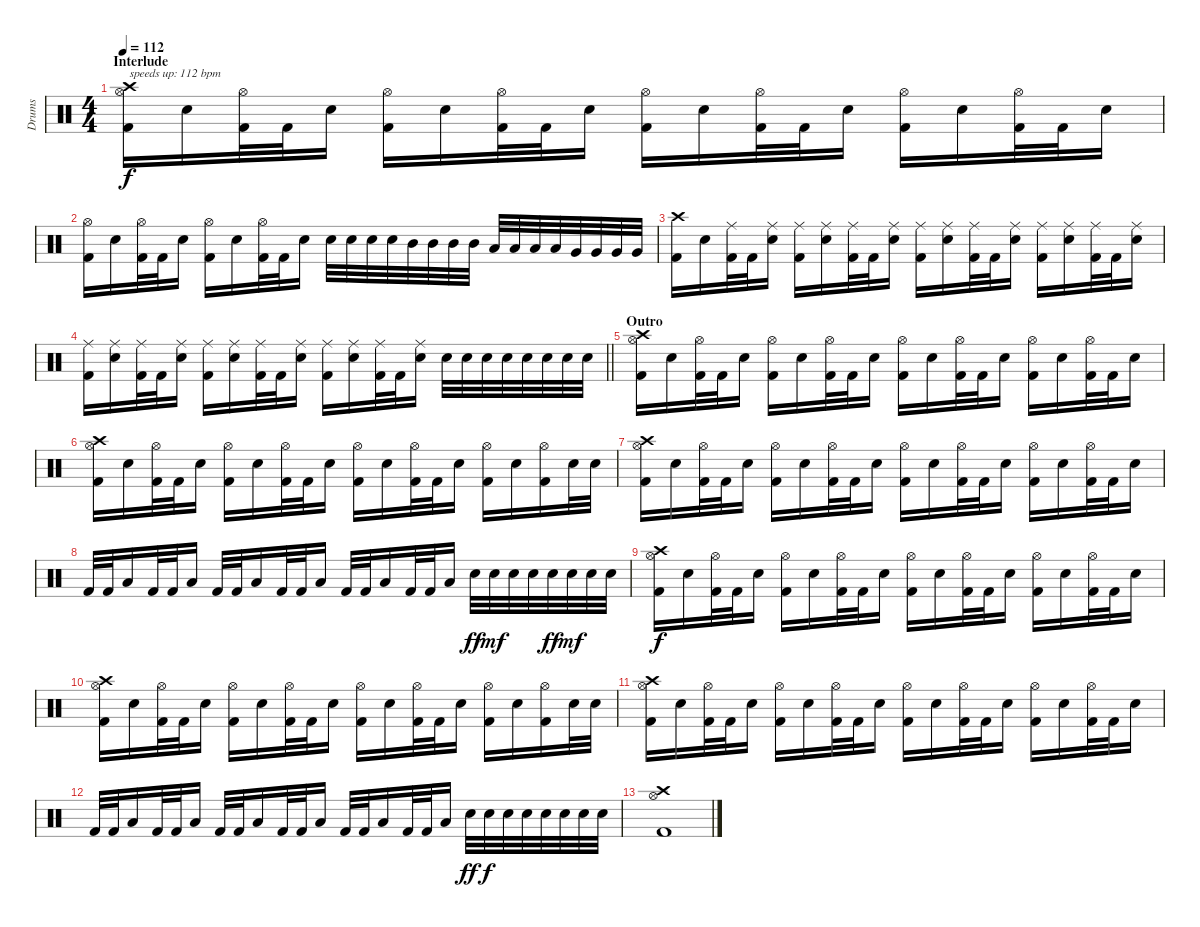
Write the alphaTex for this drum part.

\track ("Drums" "Drums") {instrument percussion}
\staff {score}
\articulation defaults
\ts (4 4)
\section ("" "Interlude")
\tempo 112
\clef neutral
\ks c
("Crash high (hit)" "Hi-Hat (open)" "Kick (hit) 2").16{txt "speeds up: 112 bpm" dy f} "Electric Snare (hit)".16 ("Hi-Hat (open)" "Kick (hit) 2").32 "Kick (hit) 2".32 "Electric Snare (hit)".16 ("Hi-Hat (open)" "Kick (hit) 2").16 "Electric Snare (hit)".16 ("Hi-Hat (open)" "Kick (hit) 2").32 "Kick (hit) 2".32 "Electric Snare (hit)".16 ("Hi-Hat (open)" "Kick (hit) 2").16 "Electric Snare (hit)".16 ("Hi-Hat (open)" "Kick (hit) 2").32 "Kick (hit) 2".32 "Electric Snare (hit)".16 ("Hi-Hat (open)" "Kick (hit) 2").16 "Electric Snare (hit)".16 ("Hi-Hat (open)" "Kick (hit) 2").32 "Kick (hit) 2".32 "Electric Snare (hit)".16 |
("Hi-Hat (open)" "Kick (hit) 2").16 "Electric Snare (hit)".16 ("Hi-Hat (open)" "Kick (hit) 2").32 "Kick (hit) 2".32 "Electric Snare (hit)".16 ("Hi-Hat (open)" "Kick (hit) 2").16 "Electric Snare (hit)".16 ("Hi-Hat (open)" "Kick (hit) 2").32 "Kick (hit) 2".32 "Electric Snare (hit)".16 "Electric Snare (hit)".32 "Electric Snare (hit)".32 "Electric Snare (hit)".32 "Electric Snare (hit)".32 "Mid Tom (hit)".32 "Mid Tom (hit)".32 "Mid Tom (hit)".32 "Mid Tom (hit)".32 "Low Tom (hit)".32 "Low Tom (hit)".32 "Low Tom (hit)".32 "Low Tom (hit)".32 "Very Low Tom (hit)".32 "Very Low Tom (hit)".32 "Very Low Tom (hit)".32 "Very Low Tom (hit)".32 |
("Crash high (hit)" "Kick (hit) 2").16 "Electric Snare (hit)".16 ("Ride (middle)" "Kick (hit) 2").32 "Kick (hit) 2".32 ("Ride (middle)" "Electric Snare (hit)").16 ("Ride (middle)" "Kick (hit) 2").16 ("Ride (middle)" "Electric Snare (hit)").16 ("Ride (middle)" "Kick (hit) 2").32 "Kick (hit) 2".32 ("Ride (middle)" "Electric Snare (hit)").16 ("Ride (middle)" "Kick (hit) 2").16 ("Ride (middle)" "Electric Snare (hit)").16 ("Ride (middle)" "Kick (hit) 2").32 "Kick (hit) 2".32 ("Ride (middle)" "Electric Snare (hit)").16 ("Ride (middle)" "Kick (hit) 2").16 ("Ride (middle)" "Electric Snare (hit)").16 ("Ride (middle)" "Kick (hit) 2").32 "Kick (hit) 2".32 ("Ride (middle)" "Electric Snare (hit)").16 |
\barLineRight lightlight
("Ride (middle)" "Kick (hit) 2").16 ("Ride (middle)" "Electric Snare (hit)").16 ("Ride (middle)" "Kick (hit) 2").32 "Kick (hit) 2".32 ("Ride (middle)" "Electric Snare (hit)").16 ("Ride (middle)" "Kick (hit) 2").16 ("Ride (middle)" "Electric Snare (hit)").16 ("Ride (middle)" "Kick (hit) 2").32 "Kick (hit) 2".32 ("Ride (middle)" "Electric Snare (hit)").16 ("Ride (middle)" "Kick (hit) 2").16 ("Ride (middle)" "Electric Snare (hit)").16 ("Ride (middle)" "Kick (hit) 2").32 "Kick (hit) 2".32 ("Ride (middle)" "Electric Snare (hit)").16 "Electric Snare (hit)".32 "Electric Snare (hit)".32 "Electric Snare (hit)".32 "Electric Snare (hit)".32 "Electric Snare (hit)".32 "Electric Snare (hit)".32 "Electric Snare (hit)".32 "Electric Snare (hit)".32 |
\section ("" "Outro")
("Crash high (hit)" "Hi-Hat (open)" "Kick (hit) 2").16 "Electric Snare (hit)".16 ("Hi-Hat (open)" "Kick (hit) 2").32 "Kick (hit) 2".32 "Electric Snare (hit)".16 ("Hi-Hat (open)" "Kick (hit) 2").16 "Electric Snare (hit)".16 ("Hi-Hat (open)" "Kick (hit) 2").32 "Kick (hit) 2".32 "Electric Snare (hit)".16 ("Hi-Hat (open)" "Kick (hit) 2").16 "Electric Snare (hit)".16 ("Hi-Hat (open)" "Kick (hit) 2").32 "Kick (hit) 2".32 "Electric Snare (hit)".16 ("Hi-Hat (open)" "Kick (hit) 2").16 "Electric Snare (hit)".16 ("Hi-Hat (open)" "Kick (hit) 2").32 "Kick (hit) 2".32 "Electric Snare (hit)".16 |
("Crash high (hit)" "Hi-Hat (open)" "Kick (hit) 2").16 "Electric Snare (hit)".16 ("Hi-Hat (open)" "Kick (hit) 2").32 "Kick (hit) 2".32 "Electric Snare (hit)".16 ("Hi-Hat (open)" "Kick (hit) 2").16 "Electric Snare (hit)".16 ("Hi-Hat (open)" "Kick (hit) 2").32 "Kick (hit) 2".32 "Electric Snare (hit)".16 ("Hi-Hat (open)" "Kick (hit) 2").16 "Electric Snare (hit)".16 ("Hi-Hat (open)" "Kick (hit) 2").32 "Kick (hit) 2".32 "Electric Snare (hit)".16 ("Hi-Hat (open)" "Kick (hit) 2").16 "Electric Snare (hit)".16 ("Hi-Hat (open)" "Kick (hit) 2").16 "Electric Snare (hit)".32 "Electric Snare (hit)".32 |
("Crash high (hit)" "Hi-Hat (open)" "Kick (hit) 2").16 "Electric Snare (hit)".16 ("Hi-Hat (open)" "Kick (hit) 2").32 "Kick (hit) 2".32 "Electric Snare (hit)".16 ("Hi-Hat (open)" "Kick (hit) 2").16 "Electric Snare (hit)".16 ("Hi-Hat (open)" "Kick (hit) 2").32 "Kick (hit) 2".32 "Electric Snare (hit)".16 ("Hi-Hat (open)" "Kick (hit) 2").16 "Electric Snare (hit)".16 ("Hi-Hat (open)" "Kick (hit) 2").32 "Kick (hit) 2".32 "Electric Snare (hit)".16 ("Hi-Hat (open)" "Kick (hit) 2").16 "Electric Snare (hit)".16 ("Hi-Hat (open)" "Kick (hit) 2").32 "Kick (hit) 2".32 "Electric Snare (hit)".16 |
"Kick (hit) 2".32 "Kick (hit) 2".32 "Low Tom (hit)".16 "Kick (hit) 2".32 "Kick (hit) 2".32 "Low Tom (hit)".16 "Kick (hit) 2".32 "Kick (hit) 2".32 "Low Tom (hit)".16 "Kick (hit) 2".32 "Kick (hit) 2".32 "Low Tom (hit)".16 "Kick (hit) 2".32 "Kick (hit) 2".32 "Low Tom (hit)".16 "Kick (hit) 2".32 "Kick (hit) 2".32 "Low Tom (hit)".16 "Electric Snare (hit)".32{dy ff} "Electric Snare (hit)".32{dy mf} "Electric Snare (hit)".32 "Electric Snare (hit)".32 "Electric Snare (hit)".32{dy ff} "Electric Snare (hit)".32{dy mf} "Electric Snare (hit)".32 "Electric Snare (hit)".32 |
("Crash high (hit)" "Hi-Hat (open)" "Kick (hit) 2").16{dy f} "Electric Snare (hit)".16 ("Hi-Hat (open)" "Kick (hit) 2").32 "Kick (hit) 2".32 "Electric Snare (hit)".16 ("Hi-Hat (open)" "Kick (hit) 2").16 "Electric Snare (hit)".16 ("Hi-Hat (open)" "Kick (hit) 2").32 "Kick (hit) 2".32 "Electric Snare (hit)".16 ("Hi-Hat (open)" "Kick (hit) 2").16 "Electric Snare (hit)".16 ("Hi-Hat (open)" "Kick (hit) 2").32 "Kick (hit) 2".32 "Electric Snare (hit)".16 ("Hi-Hat (open)" "Kick (hit) 2").16 "Electric Snare (hit)".16 ("Hi-Hat (open)" "Kick (hit) 2").32 "Kick (hit) 2".32 "Electric Snare (hit)".16 |
("Crash high (hit)" "Hi-Hat (open)" "Kick (hit) 2").16 "Electric Snare (hit)".16 ("Hi-Hat (open)" "Kick (hit) 2").32 "Kick (hit) 2".32 "Electric Snare (hit)".16 ("Hi-Hat (open)" "Kick (hit) 2").16 "Electric Snare (hit)".16 ("Hi-Hat (open)" "Kick (hit) 2").32 "Kick (hit) 2".32 "Electric Snare (hit)".16 ("Hi-Hat (open)" "Kick (hit) 2").16 "Electric Snare (hit)".16 ("Hi-Hat (open)" "Kick (hit) 2").32 "Kick (hit) 2".32 "Electric Snare (hit)".16 ("Hi-Hat (open)" "Kick (hit) 2").16 "Electric Snare (hit)".16 ("Hi-Hat (open)" "Kick (hit) 2").16 "Electric Snare (hit)".32 "Electric Snare (hit)".32 |
("Crash high (hit)" "Hi-Hat (open)" "Kick (hit) 2").16 "Electric Snare (hit)".16 ("Hi-Hat (open)" "Kick (hit) 2").32 "Kick (hit) 2".32 "Electric Snare (hit)".16 ("Hi-Hat (open)" "Kick (hit) 2").16 "Electric Snare (hit)".16 ("Hi-Hat (open)" "Kick (hit) 2").32 "Kick (hit) 2".32 "Electric Snare (hit)".16 ("Hi-Hat (open)" "Kick (hit) 2").16 "Electric Snare (hit)".16 ("Hi-Hat (open)" "Kick (hit) 2").32 "Kick (hit) 2".32 "Electric Snare (hit)".16 ("Hi-Hat (open)" "Kick (hit) 2").16 "Electric Snare (hit)".16 ("Hi-Hat (open)" "Kick (hit) 2").32 "Kick (hit) 2".32 "Electric Snare (hit)".16 |
"Kick (hit) 2".32 "Kick (hit) 2".32 "Low Tom (hit)".16 "Kick (hit) 2".32 "Kick (hit) 2".32 "Low Tom (hit)".16 "Kick (hit) 2".32 "Kick (hit) 2".32 "Low Tom (hit)".16 "Kick (hit) 2".32 "Kick (hit) 2".32 "Low Tom (hit)".16 "Kick (hit) 2".32 "Kick (hit) 2".32 "Low Tom (hit)".16 "Kick (hit) 2".32 "Kick (hit) 2".32 "Low Tom (hit)".16 "Electric Snare (hit)".32{dy ff} "Electric Snare (hit)".32{dy f} "Electric Snare (hit)".32 "Electric Snare (hit)".32 "Electric Snare (hit)".32 "Electric Snare (hit)".32 "Electric Snare (hit)".32 "Electric Snare (hit)".32 |
("Crash high (hit)" "Hi-Hat (open)" "Kick (hit) 2").1
